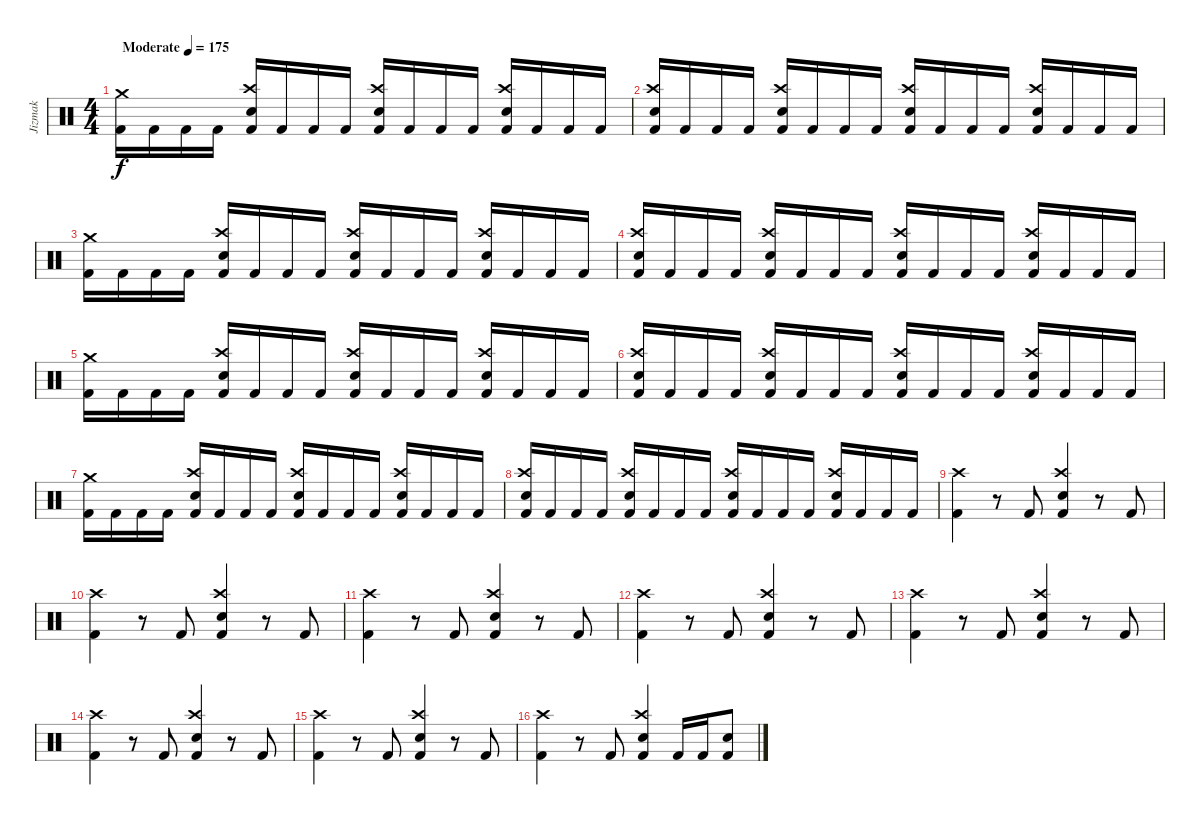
\track ("Jizmak" "Jizmak") {instrument percussion}
\staff {score}
\articulation defaults
\ts (4 4)
\tempo (175 "Moderate")
\clef neutral
\ks c
("Crash medium (hit)" "Kick (hit) 2").16{dy f} "Kick (hit) 2".16 "Kick (hit) 2".16 "Kick (hit) 2".16 ("Crash high (hit)" "Snare (hit) 2" "Kick (hit) 2").16 "Kick (hit) 2".16 "Kick (hit) 2".16 "Kick (hit) 2".16 ("Crash high (hit)" "Snare (hit) 2" "Kick (hit) 2").16 "Kick (hit) 2".16 "Kick (hit) 2".16 "Kick (hit) 2".16 ("Crash high (hit)" "Snare (hit) 2" "Kick (hit) 2").16 "Kick (hit) 2".16 "Kick (hit) 2".16 "Kick (hit) 2".16 |
("Crash high (hit)" "Snare (hit) 2" "Kick (hit) 2").16 "Kick (hit) 2".16 "Kick (hit) 2".16 "Kick (hit) 2".16 ("Crash high (hit)" "Snare (hit) 2" "Kick (hit) 2").16 "Kick (hit) 2".16 "Kick (hit) 2".16 "Kick (hit) 2".16 ("Crash high (hit)" "Snare (hit) 2" "Kick (hit) 2").16 "Kick (hit) 2".16 "Kick (hit) 2".16 "Kick (hit) 2".16 ("Crash high (hit)" "Snare (hit) 2" "Kick (hit) 2").16 "Kick (hit) 2".16 "Kick (hit) 2".16 "Kick (hit) 2".16 |
("Crash medium (hit)" "Kick (hit) 2").16 "Kick (hit) 2".16 "Kick (hit) 2".16 "Kick (hit) 2".16 ("Crash high (hit)" "Snare (hit) 2" "Kick (hit) 2").16 "Kick (hit) 2".16 "Kick (hit) 2".16 "Kick (hit) 2".16 ("Crash high (hit)" "Snare (hit) 2" "Kick (hit) 2").16 "Kick (hit) 2".16 "Kick (hit) 2".16 "Kick (hit) 2".16 ("Crash high (hit)" "Snare (hit) 2" "Kick (hit) 2").16 "Kick (hit) 2".16 "Kick (hit) 2".16 "Kick (hit) 2".16 |
("Crash high (hit)" "Snare (hit) 2" "Kick (hit) 2").16 "Kick (hit) 2".16 "Kick (hit) 2".16 "Kick (hit) 2".16 ("Crash high (hit)" "Snare (hit) 2" "Kick (hit) 2").16 "Kick (hit) 2".16 "Kick (hit) 2".16 "Kick (hit) 2".16 ("Crash high (hit)" "Snare (hit) 2" "Kick (hit) 2").16 "Kick (hit) 2".16 "Kick (hit) 2".16 "Kick (hit) 2".16 ("Crash high (hit)" "Snare (hit) 2" "Kick (hit) 2").16 "Kick (hit) 2".16 "Kick (hit) 2".16 "Kick (hit) 2".16 |
("Crash medium (hit)" "Kick (hit) 2").16 "Kick (hit) 2".16 "Kick (hit) 2".16 "Kick (hit) 2".16 ("Crash high (hit)" "Snare (hit) 2" "Kick (hit) 2").16 "Kick (hit) 2".16 "Kick (hit) 2".16 "Kick (hit) 2".16 ("Crash high (hit)" "Snare (hit) 2" "Kick (hit) 2").16 "Kick (hit) 2".16 "Kick (hit) 2".16 "Kick (hit) 2".16 ("Crash high (hit)" "Snare (hit) 2" "Kick (hit) 2").16 "Kick (hit) 2".16 "Kick (hit) 2".16 "Kick (hit) 2".16 |
("Crash high (hit)" "Snare (hit) 2" "Kick (hit) 2").16 "Kick (hit) 2".16 "Kick (hit) 2".16 "Kick (hit) 2".16 ("Crash high (hit)" "Snare (hit) 2" "Kick (hit) 2").16 "Kick (hit) 2".16 "Kick (hit) 2".16 "Kick (hit) 2".16 ("Crash high (hit)" "Snare (hit) 2" "Kick (hit) 2").16 "Kick (hit) 2".16 "Kick (hit) 2".16 "Kick (hit) 2".16 ("Crash high (hit)" "Snare (hit) 2" "Kick (hit) 2").16 "Kick (hit) 2".16 "Kick (hit) 2".16 "Kick (hit) 2".16 |
("Crash medium (hit)" "Kick (hit) 2").16 "Kick (hit) 2".16 "Kick (hit) 2".16 "Kick (hit) 2".16 ("Crash high (hit)" "Snare (hit) 2" "Kick (hit) 2").16 "Kick (hit) 2".16 "Kick (hit) 2".16 "Kick (hit) 2".16 ("Crash high (hit)" "Snare (hit) 2" "Kick (hit) 2").16 "Kick (hit) 2".16 "Kick (hit) 2".16 "Kick (hit) 2".16 ("Crash high (hit)" "Snare (hit) 2" "Kick (hit) 2").16 "Kick (hit) 2".16 "Kick (hit) 2".16 "Kick (hit) 2".16 |
("Crash high (hit)" "Snare (hit) 2" "Kick (hit) 2").16 "Kick (hit) 2".16 "Kick (hit) 2".16 "Kick (hit) 2".16 ("Crash high (hit)" "Snare (hit) 2" "Kick (hit) 2").16 "Kick (hit) 2".16 "Kick (hit) 2".16 "Kick (hit) 2".16 ("Crash high (hit)" "Snare (hit) 2" "Kick (hit) 2").16 "Kick (hit) 2".16 "Kick (hit) 2".16 "Kick (hit) 2".16 ("Crash high (hit)" "Snare (hit) 2" "Kick (hit) 2").16 "Kick (hit) 2".16 "Kick (hit) 2".16 "Kick (hit) 2".16 |
("Crash high (hit)" "Kick (hit) 2").4 r.8 "Kick (hit) 2".8 ("Crash high (hit)" "Snare (hit) 2" "Kick (hit) 2").4 r.8 "Kick (hit) 2".8 |
("Crash high (hit)" "Kick (hit) 2").4 r.8 "Kick (hit) 2".8 ("Crash high (hit)" "Snare (hit) 2" "Kick (hit) 2").4 r.8 "Kick (hit) 2".8 |
("Crash high (hit)" "Kick (hit) 2").4 r.8 "Kick (hit) 2".8 ("Crash high (hit)" "Snare (hit) 2" "Kick (hit) 2").4 r.8 "Kick (hit) 2".8 |
("Crash high (hit)" "Kick (hit) 2").4 r.8 "Kick (hit) 2".8 ("Crash high (hit)" "Snare (hit) 2" "Kick (hit) 2").4 r.8 "Kick (hit) 2".8 |
("Crash high (hit)" "Kick (hit) 2").4 r.8 "Kick (hit) 2".8 ("Crash high (hit)" "Snare (hit) 2" "Kick (hit) 2").4 r.8 "Kick (hit) 2".8 |
("Crash high (hit)" "Kick (hit) 2").4 r.8 "Kick (hit) 2".8 ("Crash high (hit)" "Snare (hit) 2" "Kick (hit) 2").4 r.8 "Kick (hit) 2".8 |
("Crash high (hit)" "Kick (hit) 2").4 r.8 "Kick (hit) 2".8 ("Crash high (hit)" "Snare (hit) 2" "Kick (hit) 2").4 r.8 "Kick (hit) 2".8 |
("Crash high (hit)" "Kick (hit) 2").4 r.8 "Kick (hit) 2".8 ("Crash high (hit)" "Snare (hit) 2" "Kick (hit) 2").4 "Kick (hit) 2".16 "Kick (hit) 2".16 ("Snare (hit) 2" "Kick (hit) 2").8
